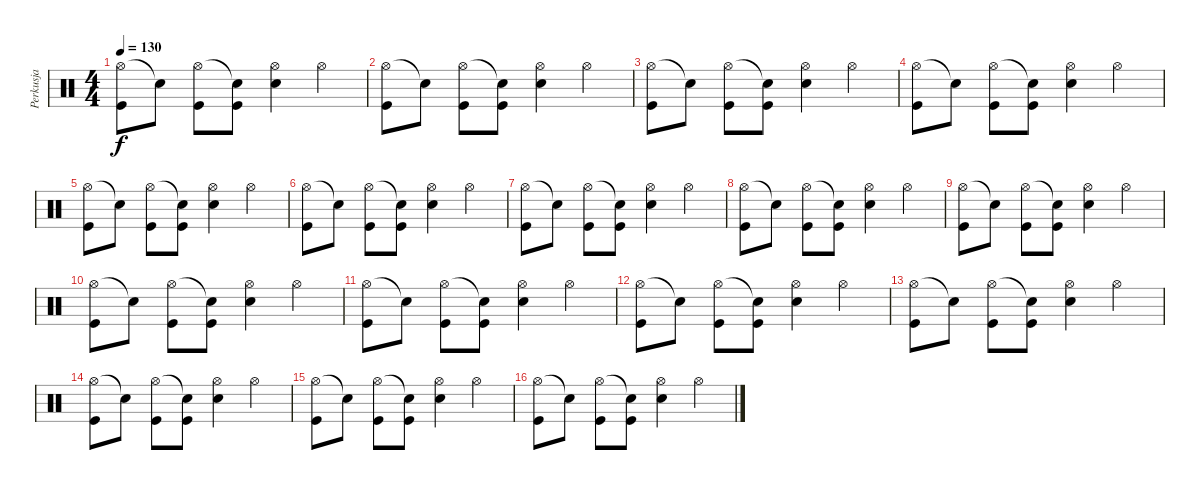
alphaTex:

\track ("Perkusja" "Perkusja") {instrument percussion}
\staff {score}
\articulation defaults
\ts (4 4)
\tempo 130
\clef neutral
\ks c
("Hi-Hat (open)" "Kick (hit)").8{dy f} "Snare (hit)"{t}.8 ("Hi-Hat (open)" "Kick (hit)").8 ("Snare (hit)"{t} "Kick (hit)").8 ("Hi-Hat (open)" "Metronome (bell)").4 "Hi-Hat (open)".4 |
("Hi-Hat (open)" "Kick (hit)").8 "Snare (hit)"{t}.8 ("Hi-Hat (open)" "Kick (hit)").8 ("Snare (hit)"{t} "Kick (hit)").8 ("Hi-Hat (open)" "Metronome (bell)").4 "Hi-Hat (open)".4 |
("Hi-Hat (open)" "Kick (hit)").8 "Snare (hit)"{t}.8 ("Hi-Hat (open)" "Kick (hit)").8 ("Snare (hit)"{t} "Kick (hit)").8 ("Hi-Hat (open)" "Metronome (bell)").4 "Hi-Hat (open)".4 |
("Hi-Hat (open)" "Kick (hit)").8 "Snare (hit)"{t}.8 ("Hi-Hat (open)" "Kick (hit)").8 ("Snare (hit)"{t} "Kick (hit)").8 ("Hi-Hat (open)" "Metronome (bell)").4 "Hi-Hat (open)".4 |
("Hi-Hat (open)" "Kick (hit)").8 "Snare (hit)"{t}.8 ("Hi-Hat (open)" "Kick (hit)").8 ("Snare (hit)"{t} "Kick (hit)").8 ("Hi-Hat (open)" "Metronome (bell)").4 "Hi-Hat (open)".4 |
("Hi-Hat (open)" "Kick (hit)").8 "Snare (hit)"{t}.8 ("Hi-Hat (open)" "Kick (hit)").8 ("Snare (hit)"{t} "Kick (hit)").8 ("Hi-Hat (open)" "Metronome (bell)").4 "Hi-Hat (open)".4 |
("Hi-Hat (open)" "Kick (hit)").8 "Snare (hit)"{t}.8 ("Hi-Hat (open)" "Kick (hit)").8 ("Snare (hit)"{t} "Kick (hit)").8 ("Hi-Hat (open)" "Metronome (bell)").4 "Hi-Hat (open)".4 |
("Hi-Hat (open)" "Kick (hit)").8 "Snare (hit)"{t}.8 ("Hi-Hat (open)" "Kick (hit)").8 ("Snare (hit)"{t} "Kick (hit)").8 ("Hi-Hat (open)" "Metronome (bell)").4 "Hi-Hat (open)".4 |
("Hi-Hat (open)" "Kick (hit)").8 "Snare (hit)"{t}.8 ("Hi-Hat (open)" "Kick (hit)").8 ("Snare (hit)"{t} "Kick (hit)").8 ("Hi-Hat (open)" "Metronome (bell)").4 "Hi-Hat (open)".4 |
("Hi-Hat (open)" "Kick (hit)").8 "Snare (hit)"{t}.8 ("Hi-Hat (open)" "Kick (hit)").8 ("Snare (hit)"{t} "Kick (hit)").8 ("Hi-Hat (open)" "Metronome (bell)").4 "Hi-Hat (open)".4 |
("Hi-Hat (open)" "Kick (hit)").8 "Snare (hit)"{t}.8 ("Hi-Hat (open)" "Kick (hit)").8 ("Snare (hit)"{t} "Kick (hit)").8 ("Hi-Hat (open)" "Metronome (bell)").4 "Hi-Hat (open)".4 |
("Hi-Hat (open)" "Kick (hit)").8 "Snare (hit)"{t}.8 ("Hi-Hat (open)" "Kick (hit)").8 ("Snare (hit)"{t} "Kick (hit)").8 ("Hi-Hat (open)" "Metronome (bell)").4 "Hi-Hat (open)".4 |
("Hi-Hat (open)" "Kick (hit)").8 "Snare (hit)"{t}.8 ("Hi-Hat (open)" "Kick (hit)").8 ("Snare (hit)"{t} "Kick (hit)").8 ("Hi-Hat (open)" "Metronome (bell)").4 "Hi-Hat (open)".4 |
("Hi-Hat (open)" "Kick (hit)").8 "Snare (hit)"{t}.8 ("Hi-Hat (open)" "Kick (hit)").8 ("Snare (hit)"{t} "Kick (hit)").8 ("Hi-Hat (open)" "Metronome (bell)").4 "Hi-Hat (open)".4 |
("Hi-Hat (open)" "Kick (hit)").8 "Snare (hit)"{t}.8 ("Hi-Hat (open)" "Kick (hit)").8 ("Snare (hit)"{t} "Kick (hit)").8 ("Hi-Hat (open)" "Metronome (bell)").4 "Hi-Hat (open)".4 |
("Hi-Hat (open)" "Kick (hit)").8 "Snare (hit)"{t}.8 ("Hi-Hat (open)" "Kick (hit)").8 ("Snare (hit)"{t} "Kick (hit)").8 ("Hi-Hat (open)" "Metronome (bell)").4 "Hi-Hat (open)".4
